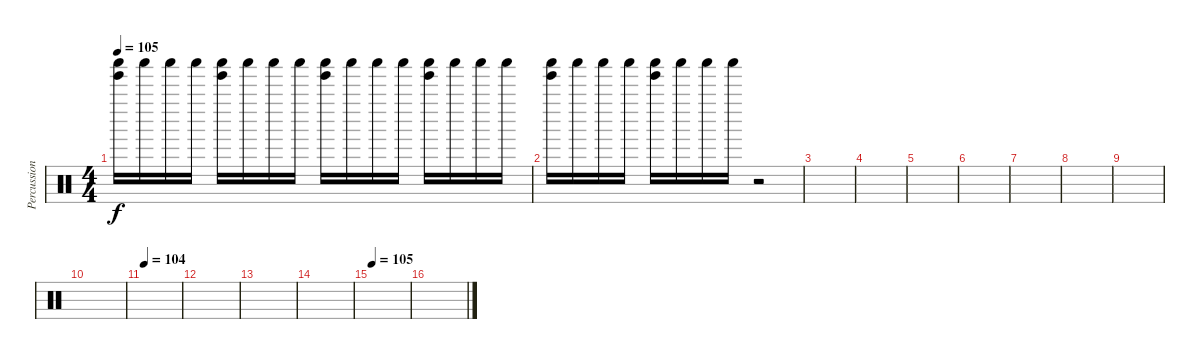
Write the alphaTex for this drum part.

\track ("Percussion" "Percussion") {instrument percussion}
\staff {score}
\articulation defaults
\ts (4 4)
\tempo 105
\clef neutral
\ks c
("Shaker (hit)" "Tinkle Bell (hit)").16{dy f} "Shaker (hit)".16 "Shaker (hit)".16 "Shaker (hit)".16 ("Shaker (hit)" "Tinkle Bell (hit)").16 "Shaker (hit)".16 "Shaker (hit)".16 "Shaker (hit)".16 ("Shaker (hit)" "Tinkle Bell (hit)").16 "Shaker (hit)".16 "Shaker (hit)".16 "Shaker (hit)".16 ("Shaker (hit)" "Tinkle Bell (hit)").16 "Shaker (hit)".16 "Shaker (hit)".16 "Shaker (hit)".16 |
\ks aminor
("Shaker (hit)" "Tinkle Bell (hit)").16 "Shaker (hit)".16 "Shaker (hit)".16 "Shaker (hit)".16 ("Shaker (hit)" "Tinkle Bell (hit)").16 "Shaker (hit)".16 "Shaker (hit)".16 "Shaker (hit)".16 r.2 |
|
\ks c
|
|
\ks aminor
|
|
\ks c
|
|
\ks aminor
|
\tempo 104
|
\ks c
|
|
\ks aminor
|
\tempo 105
|
\ks c
